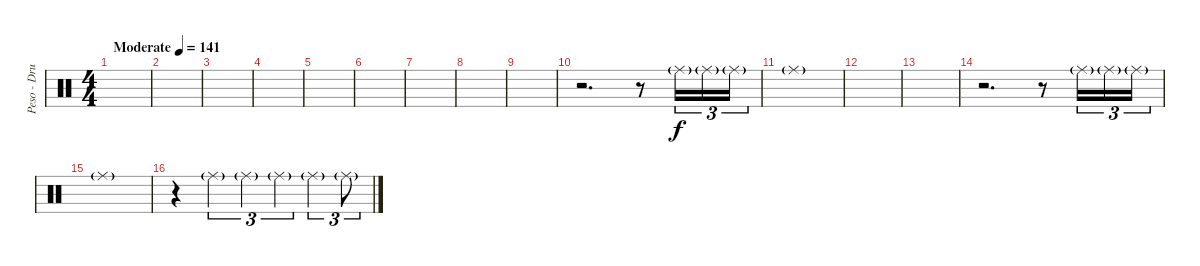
\track ("Peso - Drums" "Peso - Dru") {instrument percussion}
\staff {score}
\articulation defaults
\ts (4 4)
\tempo (141 "Moderate")
\clef neutral
\ks c
|
|
|
|
|
|
|
|
|
r.2{d} r.8 "Ride (middle)"{g}.16{tu (3 2)} "Ride (middle)"{g}.16{tu (3 2)} "Ride (middle)"{g}.16{tu (3 2)} |
"Ride (middle)"{g}.1 |
|
|
r.2{d} r.8 "Ride (middle)"{g}.16{tu (3 2)} "Ride (middle)"{g}.16{tu (3 2)} "Ride (middle)"{g}.16{tu (3 2)} |
"Ride (middle)"{g}.1 |
r.4 "Ride (middle)"{g}.4{tu (3 2)} "Ride (middle)"{g}.4{tu (3 2)} "Ride (middle)"{g}.4{tu (3 2)} "Ride (middle)"{g}.4{tu (3 2)} "Ride (middle)"{g}.8{tu (3 2)}
